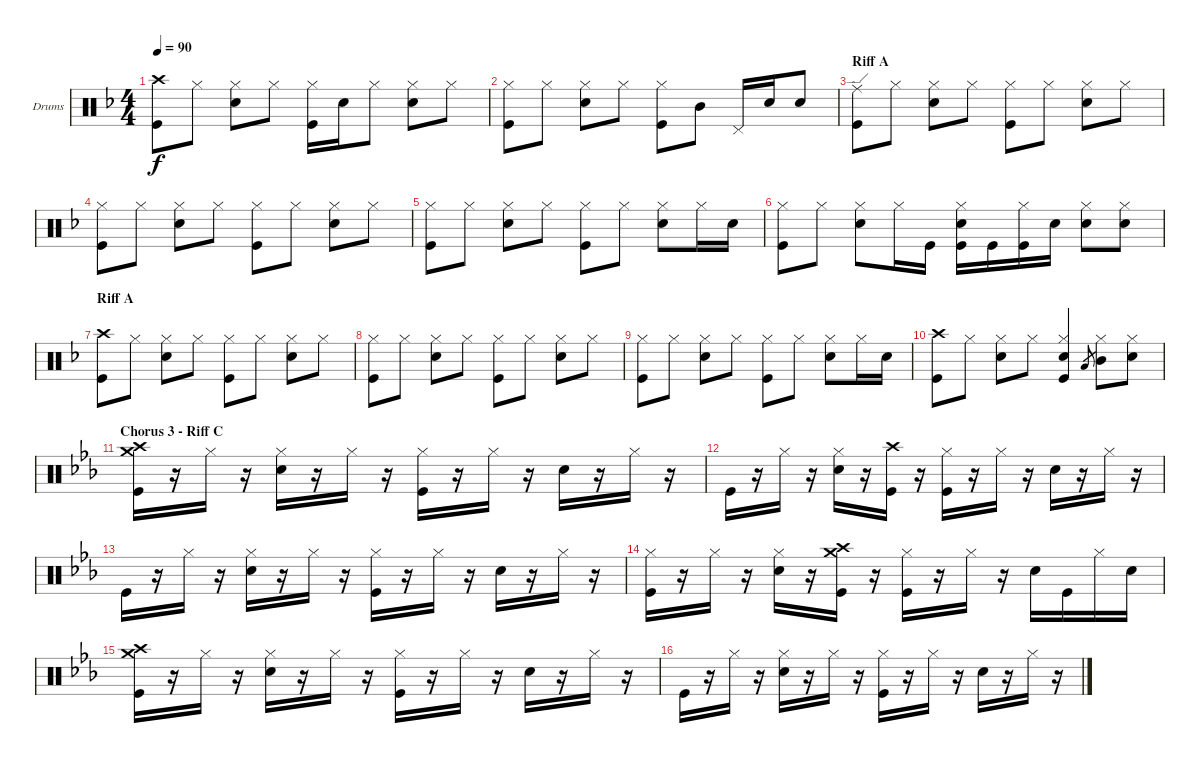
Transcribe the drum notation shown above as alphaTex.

\bracketExtendMode groupsimilarinstruments
\firstSystemTrackNameOrientation horizontal
\otherSystemsTrackNameOrientation horizontal
\track ("Drumkit" "Drums") {instrument percussion}
\staff {score}
\articulation defaults
\ts (4 4)
\tempo 90
\clef neutral
\ks dminor
("Crash high (hit)" "Kick (hit)").8{dy f} "Hi-Hat (closed)".8 ("Hi-Hat (closed)" "Snare (hit) 2").8 "Hi-Hat (closed)".8 ("Hi-Hat (closed)" "Kick (hit)").16 "Snare (hit) 2".16 "Hi-Hat (closed)".8 ("Hi-Hat (closed)" "Snare (hit) 2").8 "Hi-Hat (closed)".8 |
("Hi-Hat (closed)" "Kick (hit)").8 "Hi-Hat (closed)".8 ("Hi-Hat (closed)" "Snare (hit) 2").8 "Hi-Hat (closed)".8 ("Hi-Hat (closed)" "Kick (hit)").8 "Mid Tom (hit)".8 "Pedal Hi-Hat (hit)".16 "Snare (hit) 2".16 "Snare (hit) 2".8 |
\section ("" "Riff A")
("Ride (edge)" "Kick (hit)").8 "Hi-Hat (closed)".8 ("Hi-Hat (closed)" "Snare (hit) 2").8 "Hi-Hat (closed)".8 ("Hi-Hat (closed)" "Kick (hit)").8 "Hi-Hat (closed)".8 ("Hi-Hat (closed)" "Snare (hit) 2").8 "Hi-Hat (closed)".8 |
("Hi-Hat (closed)" "Kick (hit)").8 "Hi-Hat (closed)".8 ("Hi-Hat (closed)" "Snare (hit) 2").8 "Hi-Hat (closed)".8 ("Hi-Hat (closed)" "Kick (hit)").8 "Hi-Hat (closed)".8 ("Hi-Hat (closed)" "Snare (hit) 2").8 "Hi-Hat (closed)".8 |
("Hi-Hat (closed)" "Kick (hit)").8 "Hi-Hat (closed)".8 ("Hi-Hat (closed)" "Snare (hit) 2").8 "Hi-Hat (closed)".8 ("Hi-Hat (closed)" "Kick (hit)").8 "Hi-Hat (closed)".8 ("Hi-Hat (closed)" "Snare (hit) 2").8 "Hi-Hat (closed)".16 "Snare (hit) 2".16 |
("Hi-Hat (closed)" "Kick (hit)").8 "Hi-Hat (closed)".8 ("Hi-Hat (closed)" "Snare (hit) 2").8 "Hi-Hat (closed)".16 "Kick (hit)".16 ("Hi-Hat (closed)" "Snare (hit) 2" "Kick (hit)").16 "Kick (hit)".16 ("Hi-Hat (closed)" "Kick (hit)").16 "Snare (hit) 2".16 ("Hi-Hat (closed)" "Snare (hit) 2").8 ("Hi-Hat (closed)" "Snare (hit) 2").8 |
\section ("" "Riff A")
("Crash high (hit)" "Kick (hit)").8 "Hi-Hat (closed)".8 ("Hi-Hat (closed)" "Snare (hit) 2").8 "Hi-Hat (closed)".8 ("Hi-Hat (closed)" "Kick (hit)").8 "Hi-Hat (closed)".8 ("Hi-Hat (closed)" "Snare (hit) 2").8 "Hi-Hat (closed)".8 |
("Hi-Hat (closed)" "Kick (hit)").8 "Hi-Hat (closed)".8 ("Hi-Hat (closed)" "Snare (hit) 2").8 "Hi-Hat (closed)".8 ("Hi-Hat (closed)" "Kick (hit)").8 "Hi-Hat (closed)".8 ("Hi-Hat (closed)" "Snare (hit) 2").8 "Hi-Hat (closed)".8 |
("Hi-Hat (closed)" "Kick (hit)").8 "Hi-Hat (closed)".8 ("Hi-Hat (closed)" "Snare (hit) 2").8 "Hi-Hat (closed)".8 ("Hi-Hat (closed)" "Kick (hit)").8 "Hi-Hat (closed)".8 ("Hi-Hat (closed)" "Snare (hit) 2").8 "Hi-Hat (closed)".16 "Snare (hit) 2".16 |
("Crash high (hit)" "Kick (hit)").8 "Hi-Hat (closed)".8 ("Hi-Hat (closed)" "Snare (hit) 2").8 "Hi-Hat (closed)".8 ("Hi-Hat (closed)" "Snare (hit) 2" "Kick (hit)").4 "Low Tom (hit)".8{gr} ("Hi-Hat (closed)" "Mid Tom (hit)").8 ("Hi-Hat (closed)" "Snare (hit) 2").8 |
\section ("" "Chorus 3 - Riff C")
\ks cminor
("Crash high (hit)" "Crash medium (hit)" "Kick (hit)").16 r.16 "Hi-Hat (closed)".16 r.16 ("Hi-Hat (closed)" "Snare (hit) 2").16 r.16 "Hi-Hat (closed)".16 r.16 ("Hi-Hat (closed)" "Kick (hit)").16 r.16 "Hi-Hat (closed)".16 r.16 "Snare (hit) 2".16 r.16 "Hi-Hat (closed)".16 r.16 |
"Kick (hit)".16 r.16 "Hi-Hat (closed)".16 r.16 ("Hi-Hat (closed)" "Snare (hit) 2").16 r.16 ("Crash high (hit)" "Kick (hit)").16 r.16 ("Hi-Hat (closed)" "Kick (hit)").16 r.16 "Hi-Hat (closed)".16 r.16 "Snare (hit) 2".16 r.16 "Hi-Hat (closed)".16 r.16 |
"Kick (hit)".16 r.16 "Hi-Hat (closed)".16 r.16 ("Hi-Hat (closed)" "Snare (hit) 2").16 r.16 "Hi-Hat (closed)".16 r.16 ("Hi-Hat (closed)" "Kick (hit)").16 r.16 "Hi-Hat (closed)".16 r.16 "Snare (hit) 2".16 r.16 "Hi-Hat (closed)".16 r.16 |
("Hi-Hat (closed)" "Kick (hit)").16 r.16 "Hi-Hat (closed)".16 r.16 ("Hi-Hat (closed)" "Snare (hit) 2").16 r.16 ("Crash medium (hit)" "Crash high (hit)" "Kick (hit)").16 r.16 ("Hi-Hat (closed)" "Kick (hit)").16 r.16 "Hi-Hat (closed)".16 r.16 "Snare (hit) 2".16 "Kick (hit)".16 "Hi-Hat (closed)".16 "Snare (hit) 2".16 |
("Crash high (hit)" "Crash medium (hit)" "Kick (hit)").16 r.16 "Hi-Hat (closed)".16 r.16 ("Hi-Hat (closed)" "Snare (hit) 2").16 r.16 "Hi-Hat (closed)".16 r.16 ("Hi-Hat (closed)" "Kick (hit)").16 r.16 "Hi-Hat (closed)".16 r.16 "Snare (hit) 2".16 r.16 "Hi-Hat (closed)".16 r.16 |
"Kick (hit)".16 r.16 "Hi-Hat (closed)".16 r.16 ("Hi-Hat (closed)" "Snare (hit) 2").16 r.16 "Hi-Hat (closed)".16 r.16 ("Hi-Hat (closed)" "Kick (hit)").16 r.16 "Hi-Hat (closed)".16 r.16 "Snare (hit) 2".16 r.16 "Hi-Hat (closed)".16 r.16
